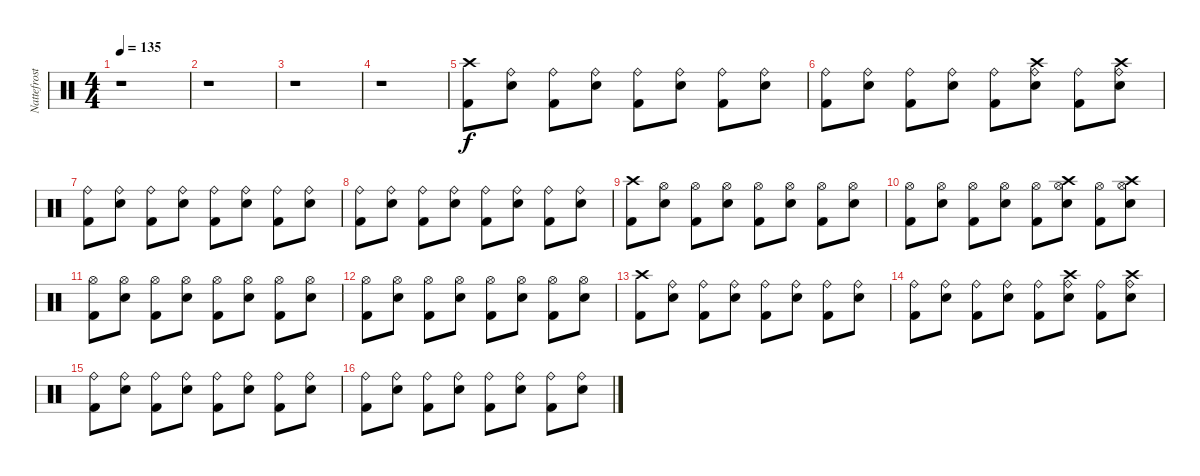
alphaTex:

\track ("Nattefrost" "Nattefrost") {instrument percussion}
\staff {score}
\articulation defaults
\ts (4 4)
\tempo 135
\clef neutral
\ks c
r.1{dy f} |
r.1 |
r.1 |
r.1 |
("Crash high (hit)" "Kick (hit) 2").8 ("Ride (bell)" "Snare (hit) 2").8 ("Ride (bell)" "Kick (hit) 2").8 ("Ride (bell)" "Snare (hit) 2").8 ("Ride (bell)" "Kick (hit) 2").8 ("Ride (bell)" "Snare (hit) 2").8 ("Ride (bell)" "Kick (hit) 2").8 ("Ride (bell)" "Snare (hit) 2").8 |
("Ride (bell)" "Kick (hit) 2").8 ("Ride (bell)" "Snare (hit) 2").8 ("Ride (bell)" "Kick (hit) 2").8 ("Ride (bell)" "Snare (hit) 2").8 ("Ride (bell)" "Kick (hit) 2").8 ("Crash high (hit)" "Ride (bell)" "Snare (hit) 2").8 ("Ride (bell)" "Kick (hit) 2").8 ("Crash high (hit)" "Ride (bell)" "Snare (hit) 2").8 |
("Ride (bell)" "Kick (hit) 2").8 ("Ride (bell)" "Snare (hit) 2").8 ("Ride (bell)" "Kick (hit) 2").8 ("Ride (bell)" "Snare (hit) 2").8 ("Ride (bell)" "Kick (hit) 2").8 ("Ride (bell)" "Snare (hit) 2").8 ("Ride (bell)" "Kick (hit) 2").8 ("Ride (bell)" "Snare (hit) 2").8 |
("Ride (bell)" "Kick (hit) 2").8 ("Ride (bell)" "Snare (hit) 2").8 ("Ride (bell)" "Kick (hit) 2").8 ("Ride (bell)" "Snare (hit) 2").8 ("Ride (bell)" "Kick (hit) 2").8 ("Ride (bell)" "Snare (hit) 2").8 ("Ride (bell)" "Kick (hit) 2").8 ("Ride (bell)" "Snare (hit) 2").8 |
("Crash high (hit)" "Kick (hit) 2").8 ("Hi-Hat (open)" "Snare (hit) 2").8 ("Hi-Hat (open)" "Kick (hit) 2").8 ("Hi-Hat (open)" "Snare (hit) 2").8 ("Hi-Hat (open)" "Kick (hit) 2").8 ("Hi-Hat (open)" "Snare (hit) 2").8 ("Hi-Hat (open)" "Kick (hit) 2").8 ("Hi-Hat (open)" "Snare (hit) 2").8 |
("Hi-Hat (open)" "Kick (hit) 2").8 ("Hi-Hat (open)" "Snare (hit) 2").8 ("Hi-Hat (open)" "Kick (hit) 2").8 ("Hi-Hat (open)" "Snare (hit) 2").8 ("Hi-Hat (open)" "Kick (hit) 2").8 ("Crash high (hit)" "Hi-Hat (open)" "Snare (hit) 2").8 ("Hi-Hat (open)" "Kick (hit) 2").8 ("Crash high (hit)" "Hi-Hat (open)" "Snare (hit) 2").8 |
("Hi-Hat (open)" "Kick (hit) 2").8 ("Hi-Hat (open)" "Snare (hit) 2").8 ("Hi-Hat (open)" "Kick (hit) 2").8 ("Hi-Hat (open)" "Snare (hit) 2").8 ("Hi-Hat (open)" "Kick (hit) 2").8 ("Hi-Hat (open)" "Snare (hit) 2").8 ("Hi-Hat (open)" "Kick (hit) 2").8 ("Hi-Hat (open)" "Snare (hit) 2").8 |
("Hi-Hat (open)" "Kick (hit) 2").8 ("Hi-Hat (open)" "Snare (hit) 2").8 ("Hi-Hat (open)" "Kick (hit) 2").8 ("Hi-Hat (open)" "Snare (hit) 2").8 ("Hi-Hat (open)" "Kick (hit) 2").8 ("Hi-Hat (open)" "Snare (hit) 2").8 ("Hi-Hat (open)" "Kick (hit) 2").8 ("Hi-Hat (open)" "Snare (hit) 2").8 |
("Crash high (hit)" "Kick (hit) 2").8 ("Ride (bell)" "Snare (hit) 2").8 ("Ride (bell)" "Kick (hit) 2").8 ("Ride (bell)" "Snare (hit) 2").8 ("Ride (bell)" "Kick (hit) 2").8 ("Ride (bell)" "Snare (hit) 2").8 ("Ride (bell)" "Kick (hit) 2").8 ("Ride (bell)" "Snare (hit) 2").8 |
("Ride (bell)" "Kick (hit) 2").8 ("Ride (bell)" "Snare (hit) 2").8 ("Ride (bell)" "Kick (hit) 2").8 ("Ride (bell)" "Snare (hit) 2").8 ("Ride (bell)" "Kick (hit) 2").8 ("Crash high (hit)" "Ride (bell)" "Snare (hit) 2").8 ("Ride (bell)" "Kick (hit) 2").8 ("Crash high (hit)" "Ride (bell)" "Snare (hit) 2").8 |
("Ride (bell)" "Kick (hit) 2").8 ("Ride (bell)" "Snare (hit) 2").8 ("Ride (bell)" "Kick (hit) 2").8 ("Ride (bell)" "Snare (hit) 2").8 ("Ride (bell)" "Kick (hit) 2").8 ("Ride (bell)" "Snare (hit) 2").8 ("Ride (bell)" "Kick (hit) 2").8 ("Ride (bell)" "Snare (hit) 2").8 |
("Ride (bell)" "Kick (hit) 2").8 ("Ride (bell)" "Snare (hit) 2").8 ("Ride (bell)" "Kick (hit) 2").8 ("Ride (bell)" "Snare (hit) 2").8 ("Ride (bell)" "Kick (hit) 2").8 ("Ride (bell)" "Snare (hit) 2").8 ("Ride (bell)" "Kick (hit) 2").8 ("Ride (bell)" "Snare (hit) 2").8
